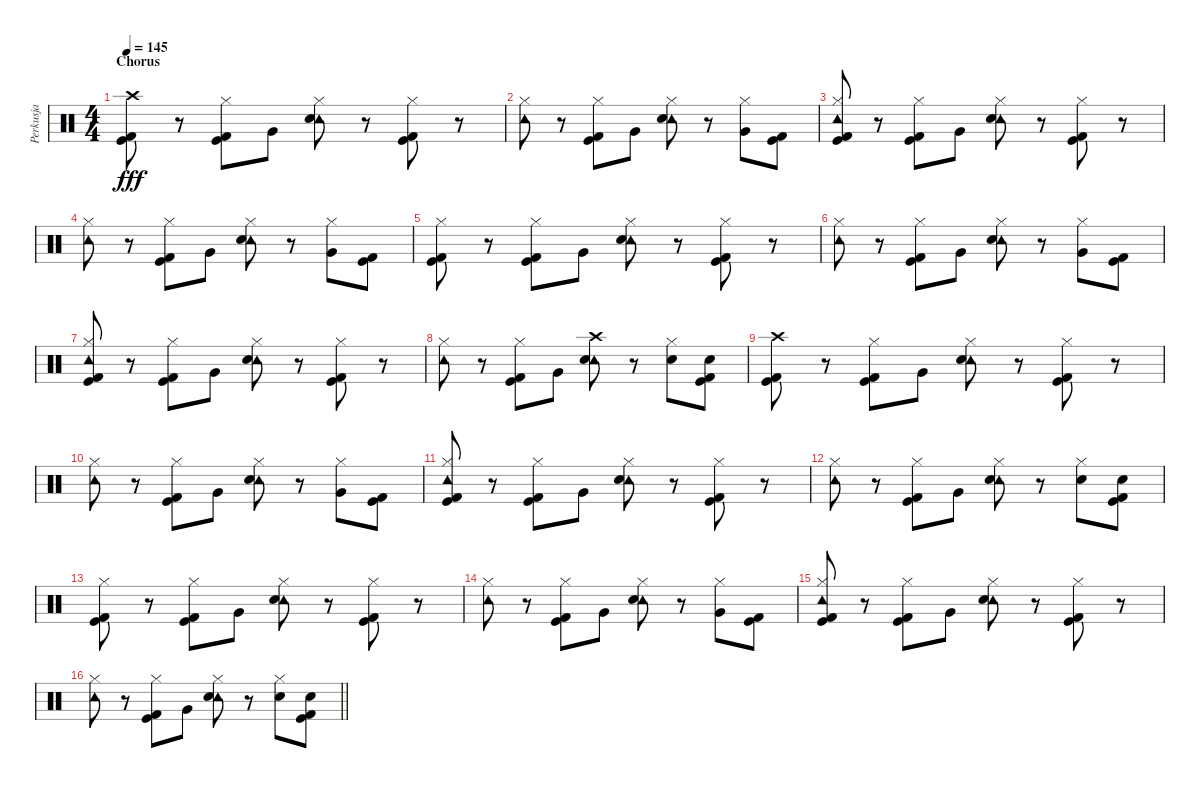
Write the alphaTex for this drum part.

\track ("Perkusja" "Perkusja") {instrument percussion}
\staff {score}
\articulation defaults
\ts (4 4)
\section ("" "Chorus")
\tempo 145
\clef neutral
\ks c
("Crash high (hit)" "Kick (hit)" "Kick (hit) 2").8{dy fff} r.8 ("Hi-Hat (closed)" "Kick (hit)" "Kick (hit) 2").8 "Very Low Tom (hit)".8 ("Hi-Hat (closed)" "Tambourine (hit)" "Electric Snare (hit)").8 r.8 ("Hi-Hat (closed)" "Kick (hit)" "Kick (hit) 2").8 r.8 |
("Hi-Hat (closed)" "Tambourine (hit)").8 r.8 ("Hi-Hat (closed)" "Kick (hit)" "Kick (hit) 2").8 "Very Low Tom (hit)".8 ("Hi-Hat (closed)" "Tambourine (hit)" "Electric Snare (hit)").8 r.8 ("Hi-Hat (closed)" "Very Low Tom (hit)").8 ("Kick (hit)" "Kick (hit) 2").8 |
("Hi-Hat (closed)" "Tambourine (hit)" "Kick (hit)" "Kick (hit) 2").8 r.8 ("Hi-Hat (closed)" "Kick (hit)" "Kick (hit) 2").8 "Very Low Tom (hit)".8 ("Hi-Hat (closed)" "Tambourine (hit)" "Electric Snare (hit)").8 r.8 ("Hi-Hat (closed)" "Kick (hit)" "Kick (hit) 2").8 r.8 |
("Hi-Hat (closed)" "Tambourine (hit)").8 r.8 ("Hi-Hat (closed)" "Kick (hit)" "Kick (hit) 2").8 "Very Low Tom (hit)".8 ("Hi-Hat (closed)" "Tambourine (hit)" "Electric Snare (hit)").8 r.8 ("Hi-Hat (closed)" "Very Low Tom (hit)").8 ("Kick (hit)" "Kick (hit) 2").8 |
("Hi-Hat (closed)" "Kick (hit)" "Kick (hit) 2").8 r.8 ("Hi-Hat (closed)" "Kick (hit)" "Kick (hit) 2").8 "Very Low Tom (hit)".8 ("Hi-Hat (closed)" "Tambourine (hit)" "Electric Snare (hit)").8 r.8 ("Hi-Hat (closed)" "Kick (hit)" "Kick (hit) 2").8 r.8 |
("Hi-Hat (closed)" "Tambourine (hit)").8 r.8 ("Hi-Hat (closed)" "Kick (hit)" "Kick (hit) 2").8 "Very Low Tom (hit)".8 ("Hi-Hat (closed)" "Tambourine (hit)" "Electric Snare (hit)").8 r.8 ("Hi-Hat (closed)" "Very Low Tom (hit)").8 ("Kick (hit)" "Kick (hit) 2").8 |
("Hi-Hat (closed)" "Tambourine (hit)" "Kick (hit)" "Kick (hit) 2").8 r.8 ("Hi-Hat (closed)" "Kick (hit)" "Kick (hit) 2").8 "Very Low Tom (hit)".8 ("Hi-Hat (closed)" "Tambourine (hit)" "Electric Snare (hit)").8 r.8 ("Hi-Hat (closed)" "Kick (hit)" "Kick (hit) 2").8 r.8 |
("Hi-Hat (closed)" "Tambourine (hit)").8 r.8 ("Hi-Hat (closed)" "Kick (hit)" "Kick (hit) 2").8 "Very Low Tom (hit)".8 ("Crash high (hit)" "Tambourine (hit)" "Electric Snare (hit)").8 r.8 ("Hi-Hat (closed)" "Electric Snare (hit)").8 ("Electric Snare (hit)" "Kick (hit)" "Kick (hit) 2").8 |
("Crash high (hit)" "Kick (hit)" "Kick (hit) 2").8 r.8 ("Hi-Hat (closed)" "Kick (hit)" "Kick (hit) 2").8 "Very Low Tom (hit)".8 ("Hi-Hat (closed)" "Tambourine (hit)" "Electric Snare (hit)").8 r.8 ("Hi-Hat (closed)" "Kick (hit)" "Kick (hit) 2").8 r.8 |
("Hi-Hat (closed)" "Tambourine (hit)").8 r.8 ("Hi-Hat (closed)" "Kick (hit)" "Kick (hit) 2").8 "Very Low Tom (hit)".8 ("Hi-Hat (closed)" "Tambourine (hit)" "Electric Snare (hit)").8 r.8 ("Hi-Hat (closed)" "Very Low Tom (hit)").8 ("Kick (hit)" "Kick (hit) 2").8 |
("Hi-Hat (closed)" "Tambourine (hit)" "Kick (hit)" "Kick (hit) 2").8 r.8 ("Hi-Hat (closed)" "Kick (hit)" "Kick (hit) 2").8 "Very Low Tom (hit)".8 ("Hi-Hat (closed)" "Tambourine (hit)" "Electric Snare (hit)").8 r.8 ("Hi-Hat (closed)" "Kick (hit)" "Kick (hit) 2").8 r.8 |
("Hi-Hat (closed)" "Tambourine (hit)").8 r.8 ("Hi-Hat (closed)" "Kick (hit)" "Kick (hit) 2").8 "Very Low Tom (hit)".8 ("Hi-Hat (closed)" "Tambourine (hit)" "Electric Snare (hit)").8 r.8 ("Hi-Hat (closed)" "Electric Snare (hit)").8 ("Electric Snare (hit)" "Kick (hit)" "Kick (hit) 2").8 |
("Hi-Hat (closed)" "Kick (hit)" "Kick (hit) 2").8 r.8 ("Hi-Hat (closed)" "Kick (hit)" "Kick (hit) 2").8 "Very Low Tom (hit)".8 ("Hi-Hat (closed)" "Tambourine (hit)" "Electric Snare (hit)").8 r.8 ("Hi-Hat (closed)" "Kick (hit)" "Kick (hit) 2").8 r.8 |
("Hi-Hat (closed)" "Tambourine (hit)").8 r.8 ("Hi-Hat (closed)" "Kick (hit)" "Kick (hit) 2").8 "Very Low Tom (hit)".8 ("Hi-Hat (closed)" "Tambourine (hit)" "Electric Snare (hit)").8 r.8 ("Hi-Hat (closed)" "Very Low Tom (hit)").8 ("Kick (hit)" "Kick (hit) 2").8 |
("Hi-Hat (closed)" "Tambourine (hit)" "Kick (hit)" "Kick (hit) 2").8 r.8 ("Hi-Hat (closed)" "Kick (hit)" "Kick (hit) 2").8 "Very Low Tom (hit)".8 ("Hi-Hat (closed)" "Tambourine (hit)" "Electric Snare (hit)").8 r.8 ("Hi-Hat (closed)" "Kick (hit)" "Kick (hit) 2").8 r.8 |
\barLineRight lightlight
("Hi-Hat (closed)" "Tambourine (hit)").8 r.8 ("Hi-Hat (closed)" "Kick (hit)" "Kick (hit) 2").8 "Very Low Tom (hit)".8 ("Hi-Hat (closed)" "Tambourine (hit)" "Electric Snare (hit)").8 r.8 ("Hi-Hat (closed)" "Electric Snare (hit)").8 ("Electric Snare (hit)" "Kick (hit)" "Kick (hit) 2").8
